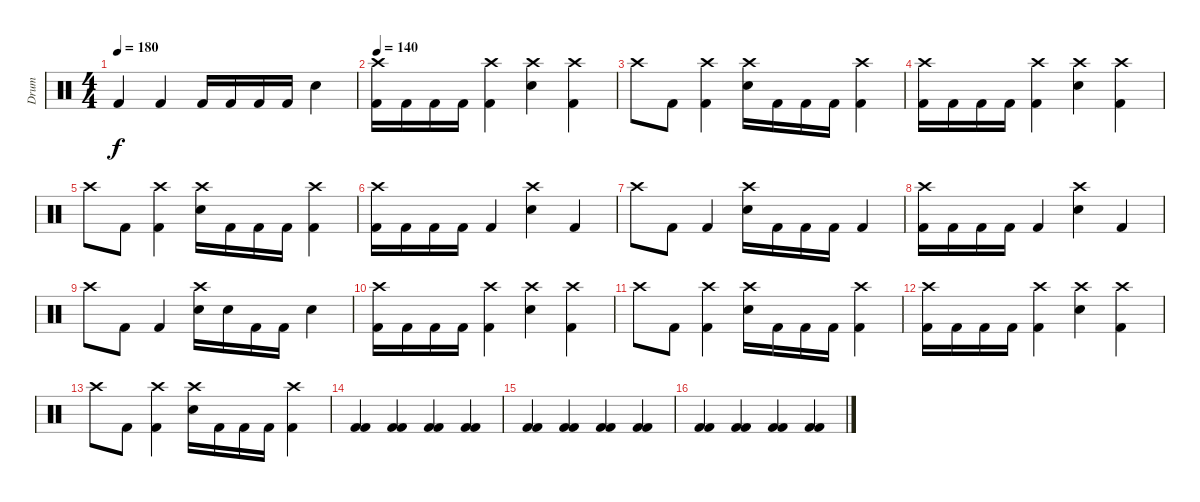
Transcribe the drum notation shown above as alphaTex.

\track ("Drum" "Drum") {instrument percussion}
\staff {score}
\articulation defaults
\ts (4 4)
\tempo 180
\clef neutral
\ks c "Kick (hit) 2".4{dy f} "Kick (hit) 2".4 "Kick (hit) 2".16 "Kick (hit) 2".16 "Kick (hit) 2".16 "Kick (hit) 2".16 "Electric Snare (hit)".4
|
\tempo 140
("Crash high (hit)" "Kick (hit) 2").16 "Kick (hit) 2".16 "Kick (hit) 2".16 "Kick (hit) 2".16 ("Crash high (hit)" "Kick (hit) 2").4 ("Crash high (hit)" "Electric Snare (hit)").4 ("Crash high (hit)" "Kick (hit) 2").4 |
"Crash high (hit)".8 "Kick (hit) 2".8 ("Crash high (hit)" "Kick (hit) 2").4 ("Crash high (hit)" "Electric Snare (hit)").16 "Kick (hit) 2".16 "Kick (hit) 2".16 "Kick (hit) 2".16 ("Crash high (hit)" "Kick (hit) 2").4 |
("Crash high (hit)" "Kick (hit) 2").16 "Kick (hit) 2".16 "Kick (hit) 2".16 "Kick (hit) 2".16 ("Crash high (hit)" "Kick (hit) 2").4 ("Crash high (hit)" "Electric Snare (hit)").4 ("Crash high (hit)" "Kick (hit) 2").4 |
"Crash high (hit)".8 "Kick (hit) 2".8 ("Crash high (hit)" "Kick (hit) 2").4 ("Crash high (hit)" "Electric Snare (hit)").16 "Kick (hit) 2".16 "Kick (hit) 2".16 "Kick (hit) 2".16 ("Crash high (hit)" "Kick (hit) 2").4 |
("Crash high (hit)" "Kick (hit) 2").16 "Kick (hit) 2".16 "Kick (hit) 2".16 "Kick (hit) 2".16 "Kick (hit) 2".4 ("Crash high (hit)" "Electric Snare (hit)").4 "Kick (hit) 2".4 |
"Crash high (hit)".8 "Kick (hit) 2".8 "Kick (hit) 2".4 ("Crash high (hit)" "Electric Snare (hit)").16 "Kick (hit) 2".16 "Kick (hit) 2".16 "Kick (hit) 2".16 "Kick (hit) 2".4 |
("Crash high (hit)" "Kick (hit) 2").16 "Kick (hit) 2".16 "Kick (hit) 2".16 "Kick (hit) 2".16 "Kick (hit) 2".4 ("Crash high (hit)" "Electric Snare (hit)").4 "Kick (hit) 2".4 |
"Crash high (hit)".8 "Kick (hit) 2".8 "Kick (hit) 2".4 ("Crash high (hit)" "Electric Snare (hit)").16 "Electric Snare (hit)".16 "Kick (hit) 2".16 "Kick (hit) 2".16 "Electric Snare (hit)".4 |
("Crash high (hit)" "Kick (hit) 2").16 "Kick (hit) 2".16 "Kick (hit) 2".16 "Kick (hit) 2".16 ("Crash high (hit)" "Kick (hit) 2").4 ("Crash high (hit)" "Electric Snare (hit)").4 ("Crash high (hit)" "Kick (hit) 2").4 |
"Crash high (hit)".8 "Kick (hit) 2".8 ("Crash high (hit)" "Kick (hit) 2").4 ("Crash high (hit)" "Electric Snare (hit)").16 "Kick (hit) 2".16 "Kick (hit) 2".16 "Kick (hit) 2".16 ("Crash high (hit)" "Kick (hit) 2").4 |
("Crash high (hit)" "Kick (hit) 2").16 "Kick (hit) 2".16 "Kick (hit) 2".16 "Kick (hit) 2".16 ("Crash high (hit)" "Kick (hit) 2").4 ("Crash high (hit)" "Electric Snare (hit)").4 ("Crash high (hit)" "Kick (hit) 2").4 |
"Crash high (hit)".8 "Kick (hit) 2".8 ("Crash high (hit)" "Kick (hit) 2").4 ("Crash high (hit)" "Electric Snare (hit)").16 "Kick (hit) 2".16 "Kick (hit) 2".16 "Kick (hit) 2".16 ("Crash high (hit)" "Kick (hit) 2").4 |
("Kick (hit) 2" "Kick (hit) 2").4 ("Kick (hit) 2" "Kick (hit) 2").4 ("Kick (hit) 2" "Kick (hit) 2").4 ("Kick (hit) 2" "Kick (hit) 2").4 |
("Kick (hit) 2" "Kick (hit) 2").4 ("Kick (hit) 2" "Kick (hit) 2").4 ("Kick (hit) 2" "Kick (hit) 2").4 ("Kick (hit) 2" "Kick (hit) 2").4 |
("Kick (hit) 2" "Kick (hit) 2").4 ("Kick (hit) 2" "Kick (hit) 2").4 ("Kick (hit) 2" "Kick (hit) 2").4 ("Kick (hit) 2" "Kick (hit) 2").4
